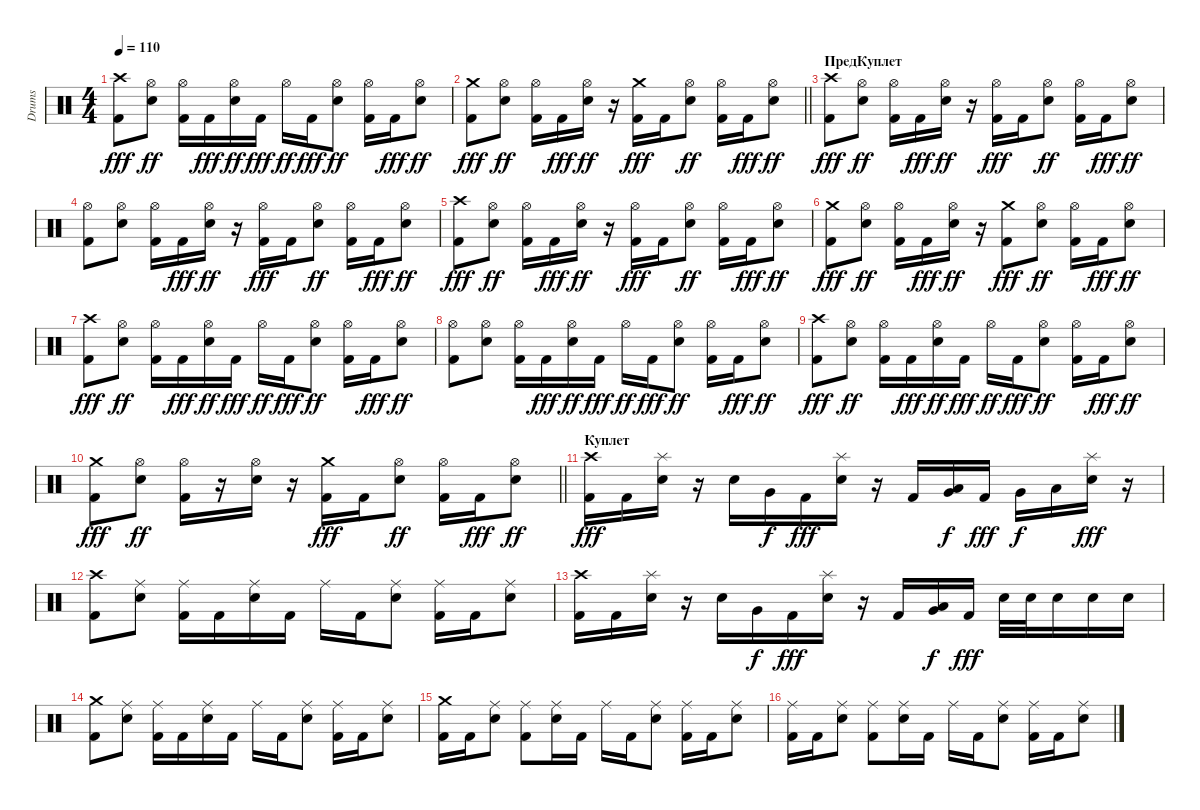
\track ("Drums" "Drums") {instrument percussion}
\staff {score}
\articulation defaults
\ts (4 4)
\tempo 110
\clef neutral
\ks c
("Kick (hit) 2" "Crash high (hit)").8{dy fff} ("Electric Snare (hit)" "Hi-Hat (open)").8{dy ff} ("Kick (hit) 2" "Hi-Hat (open)").16 "Kick (hit) 2".16{dy fff} ("Electric Snare (hit)" "Hi-Hat (open)").16{dy ff} "Kick (hit) 2".16{dy fff} "Hi-Hat (open)".16{dy ff} "Kick (hit) 2".16{dy fff} ("Electric Snare (hit)" "Hi-Hat (open)").8{dy ff} ("Kick (hit) 2" "Hi-Hat (open)").16 "Kick (hit) 2".16{dy fff} ("Electric Snare (hit)" "Hi-Hat (open)").8{dy ff} |
\barLineRight lightlight
("Kick (hit) 2" "Crash medium (hit)").8{dy fff} ("Electric Snare (hit)" "Hi-Hat (open)").8{dy ff} ("Kick (hit) 2" "Hi-Hat (open)").16 "Kick (hit) 2".16{dy fff} ("Electric Snare (hit)" "Hi-Hat (open)").16{dy ff} r.16 ("Kick (hit) 2" "Crash medium (hit)").16{dy fff} "Kick (hit) 2".16 ("Electric Snare (hit)" "Hi-Hat (open)").8{dy ff} ("Kick (hit) 2" "Hi-Hat (open)").16 "Kick (hit) 2".16{dy fff} ("Electric Snare (hit)" "Hi-Hat (open)").8{dy ff} |
\section ("" "ПредКуплет")
("Kick (hit) 2" "Crash high (hit)").8{dy fff} ("Electric Snare (hit)" "Hi-Hat (open)").8{dy ff} ("Kick (hit) 2" "Hi-Hat (open)").16 "Kick (hit) 2".16{dy fff} ("Electric Snare (hit)" "Hi-Hat (open)").16{dy ff} r.16 ("Hi-Hat (open)" "Kick (hit) 2").16{dy fff} "Kick (hit) 2".16 ("Electric Snare (hit)" "Hi-Hat (open)").8{dy ff} ("Kick (hit) 2" "Hi-Hat (open)").16 "Kick (hit) 2".16{dy fff} ("Electric Snare (hit)" "Hi-Hat (open)").8{dy ff} |
("Kick (hit) 2" "Hi-Hat (open)").8 ("Electric Snare (hit)" "Hi-Hat (open)").8 ("Kick (hit) 2" "Hi-Hat (open)").16 "Kick (hit) 2".16{dy fff} ("Electric Snare (hit)" "Hi-Hat (open)").16{dy ff} r.16 ("Hi-Hat (open)" "Kick (hit) 2").16{dy fff} "Kick (hit) 2".16 ("Electric Snare (hit)" "Hi-Hat (open)").8{dy ff} ("Kick (hit) 2" "Hi-Hat (open)").16 "Kick (hit) 2".16{dy fff} ("Electric Snare (hit)" "Hi-Hat (open)").8{dy ff} |
("Kick (hit) 2" "Crash high (hit)").8{dy fff} ("Electric Snare (hit)" "Hi-Hat (open)").8{dy ff} ("Kick (hit) 2" "Hi-Hat (open)").16 "Kick (hit) 2".16{dy fff} ("Electric Snare (hit)" "Hi-Hat (open)").16{dy ff} r.16 ("Hi-Hat (open)" "Kick (hit) 2").16{dy fff} "Kick (hit) 2".16 ("Electric Snare (hit)" "Hi-Hat (open)").8{dy ff} ("Kick (hit) 2" "Hi-Hat (open)").16 "Kick (hit) 2".16{dy fff} ("Electric Snare (hit)" "Hi-Hat (open)").8{dy ff} |
("Kick (hit) 2" "Crash medium (hit)").8{dy fff} ("Electric Snare (hit)" "Hi-Hat (open)").8{dy ff} ("Kick (hit) 2" "Hi-Hat (open)").16 "Kick (hit) 2".16{dy fff} ("Electric Snare (hit)" "Hi-Hat (open)").16{dy ff} r.16 ("Kick (hit) 2" "Crash medium (hit)").8{dy fff} ("Electric Snare (hit)" "Hi-Hat (open)").8{dy ff} ("Kick (hit) 2" "Hi-Hat (open)").16 "Kick (hit) 2".16{dy fff} ("Electric Snare (hit)" "Hi-Hat (open)").8{dy ff} |
("Kick (hit) 2" "Crash high (hit)").8{dy fff} ("Electric Snare (hit)" "Hi-Hat (open)").8{dy ff} ("Kick (hit) 2" "Hi-Hat (open)").16 "Kick (hit) 2".16{dy fff} ("Electric Snare (hit)" "Hi-Hat (open)").16{dy ff} "Kick (hit) 2".16{dy fff} "Hi-Hat (open)".16{dy ff} "Kick (hit) 2".16{dy fff} ("Electric Snare (hit)" "Hi-Hat (open)").8{dy ff} ("Kick (hit) 2" "Hi-Hat (open)").16 "Kick (hit) 2".16{dy fff} ("Electric Snare (hit)" "Hi-Hat (open)").8{dy ff} |
("Kick (hit) 2" "Hi-Hat (open)").8 ("Electric Snare (hit)" "Hi-Hat (open)").8 ("Kick (hit) 2" "Hi-Hat (open)").16 "Kick (hit) 2".16{dy fff} ("Electric Snare (hit)" "Hi-Hat (open)").16{dy ff} "Kick (hit) 2".16{dy fff} "Hi-Hat (open)".16{dy ff} "Kick (hit) 2".16{dy fff} ("Electric Snare (hit)" "Hi-Hat (open)").8{dy ff} ("Kick (hit) 2" "Hi-Hat (open)").16 "Kick (hit) 2".16{dy fff} ("Electric Snare (hit)" "Hi-Hat (open)").8{dy ff} |
("Kick (hit) 2" "Crash high (hit)").8{dy fff} ("Electric Snare (hit)" "Hi-Hat (open)").8{dy ff} ("Kick (hit) 2" "Hi-Hat (open)").16 "Kick (hit) 2".16{dy fff} ("Electric Snare (hit)" "Hi-Hat (open)").16{dy ff} "Kick (hit) 2".16{dy fff} "Hi-Hat (open)".16{dy ff} "Kick (hit) 2".16{dy fff} ("Electric Snare (hit)" "Hi-Hat (open)").8{dy ff} ("Kick (hit) 2" "Hi-Hat (open)").16 "Kick (hit) 2".16{dy fff} ("Electric Snare (hit)" "Hi-Hat (open)").8{dy ff} |
\barLineRight lightlight
("Kick (hit) 2" "Crash medium (hit)").8{dy fff} ("Electric Snare (hit)" "Hi-Hat (open)").8{dy ff} ("Kick (hit) 2" "Hi-Hat (open)").16 r.16 ("Electric Snare (hit)" "Hi-Hat (open)").16 r.16 ("Kick (hit) 2" "Crash medium (hit)").16{dy fff} "Kick (hit) 2".16 ("Electric Snare (hit)" "Hi-Hat (open)").8{dy ff} ("Kick (hit) 2" "Hi-Hat (open)").16 "Kick (hit) 2".16{dy fff} ("Electric Snare (hit)" "Hi-Hat (open)").8{dy ff} |
\section ("" "Куплет")
("Kick (hit) 2" "Crash high (hit)").16{dy fff} "Kick (hit) 2".16 ("Electric Snare (hit)" "Splash (hit)").16 r.16 "Electric Snare (hit)".16 "Very Low Tom (hit)".16{dy f} "Kick (hit) 2".16{dy fff} ("Electric Snare (hit)" "Splash (hit)").16 r.16 "Kick (hit) 2".16 ("Very Low Tom (hit)" "Low Tom (hit)").16{dy f} "Kick (hit) 2".16{dy fff} "Very Low Tom (hit)".16{dy f} "Low Floor Tom (hit)".16 ("Electric Snare (hit)" "Splash (hit)").16{dy fff} r.16 |
("Kick (hit) 2" "Crash high (hit)").8 ("Electric Snare (hit)" "Ride (middle)").8 ("Kick (hit) 2" "Ride (middle)").16 "Kick (hit) 2".16 ("Electric Snare (hit)" "Ride (middle)").16 "Kick (hit) 2".16 "Ride (middle)".16 "Kick (hit) 2".16 ("Electric Snare (hit)" "Ride (middle)").8 ("Kick (hit) 2" "Ride (middle)").16 "Kick (hit) 2".16 ("Electric Snare (hit)" "Ride (middle)").8 |
("Kick (hit) 2" "Crash high (hit)").16 "Kick (hit) 2".16 ("Electric Snare (hit)" "Splash (hit)").16 r.16 "Electric Snare (hit)".16 "Very Low Tom (hit)".16{dy f} "Kick (hit) 2".16{dy fff} ("Electric Snare (hit)" "Splash (hit)").16 r.16 "Kick (hit) 2".16 ("Very Low Tom (hit)" "Low Tom (hit)").16{dy f} "Kick (hit) 2".16{dy fff} "Electric Snare (hit)".32 "Electric Snare (hit)".32 "Electric Snare (hit)".16 "Electric Snare (hit)".16 "Electric Snare (hit)".16 |
("Kick (hit) 2" "Crash medium (hit)").8 ("Electric Snare (hit)" "Ride (middle)").8 ("Kick (hit) 2" "Ride (middle)").16 "Kick (hit) 2".16 ("Electric Snare (hit)" "Ride (middle)").16 "Kick (hit) 2".16 "Ride (middle)".16 "Kick (hit) 2".16 ("Electric Snare (hit)" "Ride (middle)").8 ("Kick (hit) 2" "Ride (middle)").16 "Kick (hit) 2".16 ("Electric Snare (hit)" "Ride (middle)").8 |
("Kick (hit) 2" "Crash medium (hit)").16 "Kick (hit) 2".16 ("Electric Snare (hit)" "Ride (middle)").8 ("Kick (hit) 2" "Ride (middle)").8 ("Electric Snare (hit)" "Ride (middle)").16 "Kick (hit) 2".16 "Ride (middle)".16 "Kick (hit) 2".16 ("Electric Snare (hit)" "Ride (middle)").8 ("Kick (hit) 2" "Ride (middle)").16 "Kick (hit) 2".16 ("Electric Snare (hit)" "Ride (middle)").8 |
("Kick (hit) 2" "Ride (middle)").16 "Kick (hit) 2".16 ("Electric Snare (hit)" "Ride (middle)").8 ("Kick (hit) 2" "Ride (middle)").8 ("Electric Snare (hit)" "Ride (middle)").16 "Kick (hit) 2".16 "Ride (middle)".16 "Kick (hit) 2".16 ("Electric Snare (hit)" "Ride (middle)").8 ("Kick (hit) 2" "Ride (middle)").16 "Kick (hit) 2".16 ("Electric Snare (hit)" "Ride (middle)").8
